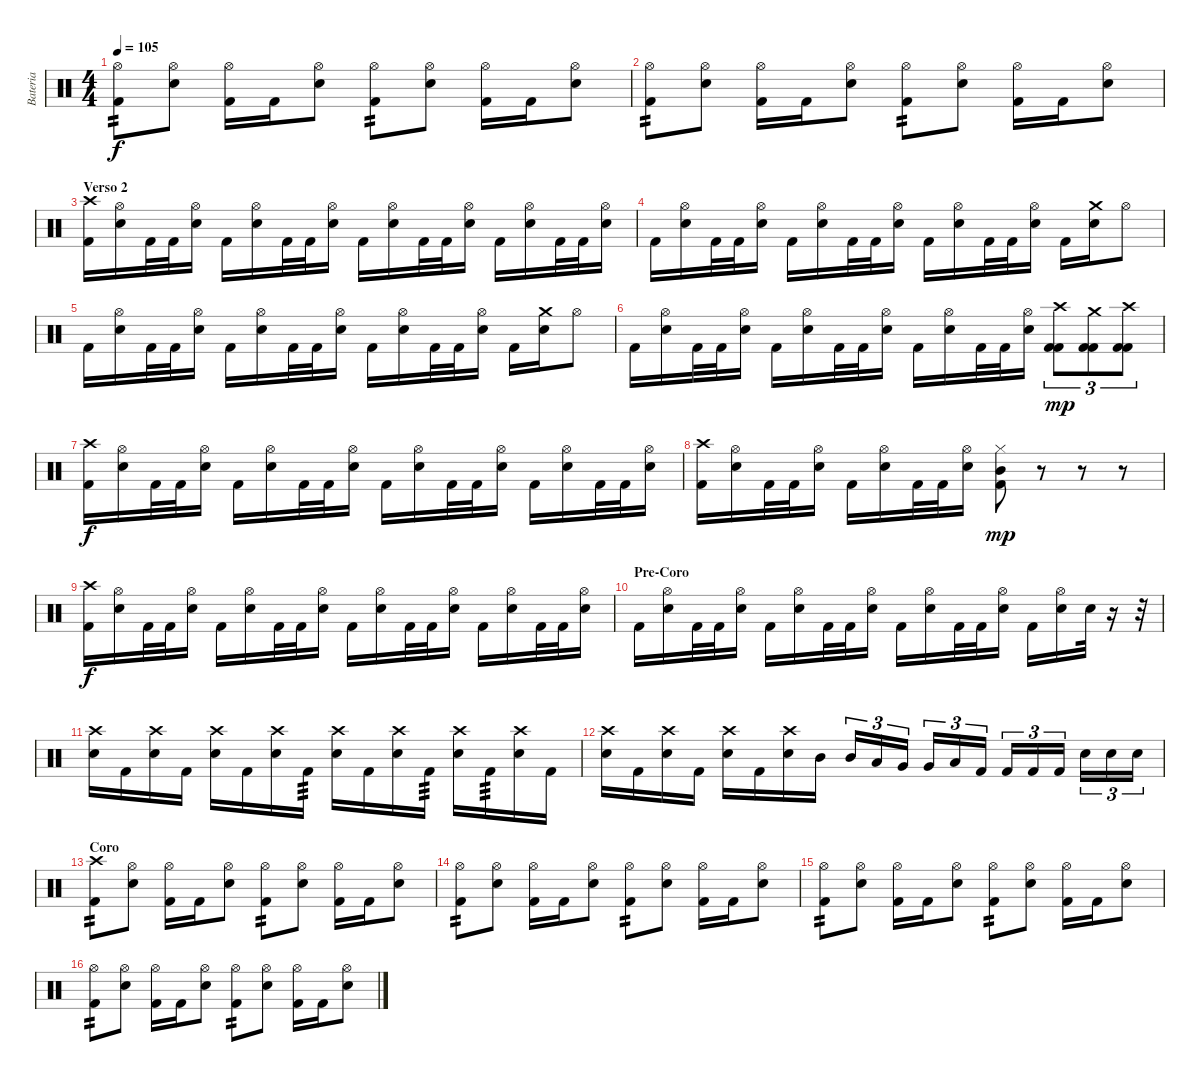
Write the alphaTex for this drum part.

\track ("Bateria" "Bateria") {instrument percussion}
\staff {score}
\articulation defaults
\ts (4 4)
\tempo 105
\clef neutral
\ks c
("Hi-Hat (open)" "Kick (hit) 2").8{tp 2 dy f} ("Hi-Hat (open)" "Electric Snare (hit)").8 ("Hi-Hat (open)" "Kick (hit) 2").16 "Kick (hit) 2".16 ("Hi-Hat (open)" "Electric Snare (hit)").8 ("Hi-Hat (open)" "Kick (hit) 2").8{tp 2} ("Hi-Hat (open)" "Electric Snare (hit)").8 ("Hi-Hat (open)" "Kick (hit) 2").16 "Kick (hit) 2".16 ("Hi-Hat (open)" "Electric Snare (hit)").8 |
("Hi-Hat (open)" "Kick (hit) 2").8{tp 2} ("Hi-Hat (open)" "Electric Snare (hit)").8 ("Hi-Hat (open)" "Kick (hit) 2").16 "Kick (hit) 2".16 ("Hi-Hat (open)" "Electric Snare (hit)").8 ("Hi-Hat (open)" "Kick (hit) 2").8{tp 2} ("Hi-Hat (open)" "Electric Snare (hit)").8 ("Hi-Hat (open)" "Kick (hit) 2").16 "Kick (hit) 2".16 ("Hi-Hat (open)" "Electric Snare (hit)").8 |
\section ("" "Verso 2")
("Crash high (hit)" "Kick (hit) 2").16 ("Hi-Hat (open)" "Electric Snare (hit)").16 "Kick (hit) 2".32 "Kick (hit) 2".32 ("Hi-Hat (open)" "Electric Snare (hit)").16 "Kick (hit) 2".16 ("Hi-Hat (open)" "Electric Snare (hit)").16 "Kick (hit) 2".32 "Kick (hit) 2".32 ("Hi-Hat (open)" "Electric Snare (hit)").16 "Kick (hit) 2".16 ("Hi-Hat (open)" "Electric Snare (hit)").16 "Kick (hit) 2".32 "Kick (hit) 2".32 ("Hi-Hat (open)" "Electric Snare (hit)").16 "Kick (hit) 2".16 ("Hi-Hat (open)" "Electric Snare (hit)").16 "Kick (hit) 2".32 "Kick (hit) 2".32 ("Hi-Hat (open)" "Electric Snare (hit)").16 |
"Kick (hit) 2".16 ("Hi-Hat (open)" "Electric Snare (hit)").16 "Kick (hit) 2".32 "Kick (hit) 2".32 ("Hi-Hat (open)" "Electric Snare (hit)").16 "Kick (hit) 2".16 ("Hi-Hat (open)" "Electric Snare (hit)").16 "Kick (hit) 2".32 "Kick (hit) 2".32 ("Hi-Hat (open)" "Electric Snare (hit)").16 "Kick (hit) 2".16 ("Hi-Hat (open)" "Electric Snare (hit)").16 "Kick (hit) 2".32 "Kick (hit) 2".32 ("Hi-Hat (open)" "Electric Snare (hit)").16 "Kick (hit) 2".16 ("Crash medium (hit)" "Electric Snare (hit)").16 "Hi-Hat (open)".8 |
"Kick (hit) 2".16 ("Hi-Hat (open)" "Electric Snare (hit)").16 "Kick (hit) 2".32 "Kick (hit) 2".32 ("Hi-Hat (open)" "Electric Snare (hit)").16 "Kick (hit) 2".16 ("Hi-Hat (open)" "Electric Snare (hit)").16 "Kick (hit) 2".32 "Kick (hit) 2".32 ("Hi-Hat (open)" "Electric Snare (hit)").16 "Kick (hit) 2".16 ("Hi-Hat (open)" "Electric Snare (hit)").16 "Kick (hit) 2".32 "Kick (hit) 2".32 ("Hi-Hat (open)" "Electric Snare (hit)").16 "Kick (hit) 2".16 ("Crash medium (hit)" "Electric Snare (hit)").16 "Hi-Hat (open)".8 |
"Kick (hit) 2".16 ("Hi-Hat (open)" "Electric Snare (hit)").16 "Kick (hit) 2".32 "Kick (hit) 2".32 ("Hi-Hat (open)" "Electric Snare (hit)").16 "Kick (hit) 2".16 ("Hi-Hat (open)" "Electric Snare (hit)").16 "Kick (hit) 2".32 "Kick (hit) 2".32 ("Hi-Hat (open)" "Electric Snare (hit)").16 "Kick (hit) 2".16 ("Hi-Hat (open)" "Electric Snare (hit)").16 "Kick (hit) 2".32 "Kick (hit) 2".32 ("Hi-Hat (open)" "Electric Snare (hit)").16 ("Kick (hit) 2" "Kick (hit) 2" "Crash high (hit)").8{tu (3 2) dy mp} ("Kick (hit) 2" "Kick (hit) 2" "Crash medium (hit)").8{tu (3 2)} ("Kick (hit) 2" "Kick (hit) 2" "Crash high (hit)").8{tu (3 2)} |
("Crash high (hit)" "Kick (hit) 2").16{dy f} ("Hi-Hat (open)" "Electric Snare (hit)").16 "Kick (hit) 2".32 "Kick (hit) 2".32 ("Hi-Hat (open)" "Electric Snare (hit)").16 "Kick (hit) 2".16 ("Hi-Hat (open)" "Electric Snare (hit)").16 "Kick (hit) 2".32 "Kick (hit) 2".32 ("Hi-Hat (open)" "Electric Snare (hit)").16 "Kick (hit) 2".16 ("Hi-Hat (open)" "Electric Snare (hit)").16 "Kick (hit) 2".32 "Kick (hit) 2".32 ("Hi-Hat (open)" "Electric Snare (hit)").16 "Kick (hit) 2".16 ("Hi-Hat (open)" "Electric Snare (hit)").16 "Kick (hit) 2".32 "Kick (hit) 2".32 ("Hi-Hat (open)" "Electric Snare (hit)").16 |
("Crash high (hit)" "Kick (hit) 2").16 ("Hi-Hat (open)" "Electric Snare (hit)").16 "Kick (hit) 2".32 "Kick (hit) 2".32 ("Hi-Hat (open)" "Electric Snare (hit)").16 "Kick (hit) 2".16 ("Hi-Hat (open)" "Electric Snare (hit)").16 "Kick (hit) 2".32 "Kick (hit) 2".32 ("Hi-Hat (open)" "Electric Snare (hit)").16 ("Mid Tom (hit)" "Kick (hit) 2" "Hi-Hat (closed)").8{dy mp} r.8 r.8 r.8 |
("Crash high (hit)" "Kick (hit) 2").16{dy f} ("Hi-Hat (open)" "Electric Snare (hit)").16 "Kick (hit) 2".32 "Kick (hit) 2".32 ("Hi-Hat (open)" "Electric Snare (hit)").16 "Kick (hit) 2".16 ("Hi-Hat (open)" "Electric Snare (hit)").16 "Kick (hit) 2".32 "Kick (hit) 2".32 ("Hi-Hat (open)" "Electric Snare (hit)").16 "Kick (hit) 2".16 ("Hi-Hat (open)" "Electric Snare (hit)").16 "Kick (hit) 2".32 "Kick (hit) 2".32 ("Hi-Hat (open)" "Electric Snare (hit)").16 "Kick (hit) 2".16 ("Hi-Hat (open)" "Electric Snare (hit)").16 "Kick (hit) 2".32 "Kick (hit) 2".32 ("Hi-Hat (open)" "Electric Snare (hit)").16 |
\section ("" "Pre-Coro")
"Kick (hit) 2".16 ("Hi-Hat (open)" "Electric Snare (hit)").16 "Kick (hit) 2".32 "Kick (hit) 2".32 ("Hi-Hat (open)" "Electric Snare (hit)").16 "Kick (hit) 2".16 ("Hi-Hat (open)" "Electric Snare (hit)").16 "Kick (hit) 2".32 "Kick (hit) 2".32 ("Hi-Hat (open)" "Electric Snare (hit)").16 "Kick (hit) 2".16 ("Hi-Hat (open)" "Electric Snare (hit)").16 "Kick (hit) 2".32 "Kick (hit) 2".32 ("Hi-Hat (open)" "Electric Snare (hit)").16 "Kick (hit) 2".16 ("Hi-Hat (open)" "Electric Snare (hit)").16 "Electric Snare (hit)".32 r.16 r.32 |
("Electric Snare (hit)" "Crash high (hit)").16 "Kick (hit) 2".16 ("Electric Snare (hit)" "Crash high (hit)").16 "Kick (hit) 2".16 ("Electric Snare (hit)" "Crash high (hit)").16 "Kick (hit) 2".16 ("Electric Snare (hit)" "Crash high (hit)").16 "Kick (hit) 2".16{tp 3} ("Electric Snare (hit)" "Crash high (hit)").16 "Kick (hit) 2".16 ("Crash high (hit)" "Electric Snare (hit)").16 "Kick (hit) 2".16{tp 3} ("Crash high (hit)" "Electric Snare (hit)").16 "Kick (hit) 2".16{tp 3} ("Crash high (hit)" "Electric Snare (hit)").16 "Kick (hit) 2".16 |
("Electric Snare (hit)" "Crash high (hit)").16 "Kick (hit) 2".16 ("Electric Snare (hit)" "Crash high (hit)").16 "Kick (hit) 2".16 ("Electric Snare (hit)" "Crash high (hit)").16 "Kick (hit) 2".16 ("Electric Snare (hit)" "Crash high (hit)").16 "Mid Tom (hit)".16 "Mid Tom (hit)".16{tu (3 2)} "Low Tom (hit)".16{tu (3 2)} "Very Low Tom (hit)".16{tu (3 2)} "Very Low Tom (hit)".16{tu (3 2)} "Low Floor Tom (hit)".16{tu (3 2)} "Kick (hit) 2".16{tu (3 2)} "Kick (hit) 2".16{tu (3 2)} "Kick (hit) 2".16{tu (3 2)} "Kick (hit) 2".16{tu (3 2)} "Electric Snare (hit)".16{tu (3 2)} "Electric Snare (hit)".16{tu (3 2)} "Electric Snare (hit)".16{tu (3 2)} |
\section ("" "Coro")
("Crash high (hit)" "Kick (hit) 2").8{tp 2} ("Hi-Hat (open)" "Electric Snare (hit)").8 ("Hi-Hat (open)" "Kick (hit) 2").16 "Kick (hit) 2".16 ("Hi-Hat (open)" "Electric Snare (hit)").8 ("Hi-Hat (open)" "Kick (hit) 2").8{tp 2} ("Hi-Hat (open)" "Electric Snare (hit)").8 ("Hi-Hat (open)" "Kick (hit) 2").16 "Kick (hit) 2".16 ("Hi-Hat (open)" "Electric Snare (hit)").8 |
("Hi-Hat (open)" "Kick (hit) 2").8{tp 2} ("Hi-Hat (open)" "Electric Snare (hit)").8 ("Hi-Hat (open)" "Kick (hit) 2").16 "Kick (hit) 2".16 ("Hi-Hat (open)" "Electric Snare (hit)").8 ("Hi-Hat (open)" "Kick (hit) 2").8{tp 2} ("Hi-Hat (open)" "Electric Snare (hit)").8 ("Hi-Hat (open)" "Kick (hit) 2").16 "Kick (hit) 2".16 ("Hi-Hat (open)" "Electric Snare (hit)").8 |
("Hi-Hat (open)" "Kick (hit) 2").8{tp 2} ("Hi-Hat (open)" "Electric Snare (hit)").8 ("Hi-Hat (open)" "Kick (hit) 2").16 "Kick (hit) 2".16 ("Hi-Hat (open)" "Electric Snare (hit)").8 ("Hi-Hat (open)" "Kick (hit) 2").8{tp 2} ("Hi-Hat (open)" "Electric Snare (hit)").8 ("Hi-Hat (open)" "Kick (hit) 2").16 "Kick (hit) 2".16 ("Hi-Hat (open)" "Electric Snare (hit)").8 |
("Hi-Hat (open)" "Kick (hit) 2").8{tp 2} ("Hi-Hat (open)" "Electric Snare (hit)").8 ("Hi-Hat (open)" "Kick (hit) 2").16 "Kick (hit) 2".16 ("Hi-Hat (open)" "Electric Snare (hit)").8 ("Hi-Hat (open)" "Kick (hit) 2").8{tp 2} ("Hi-Hat (open)" "Electric Snare (hit)").8 ("Hi-Hat (open)" "Kick (hit) 2").16 "Kick (hit) 2".16 ("Hi-Hat (open)" "Electric Snare (hit)").8
